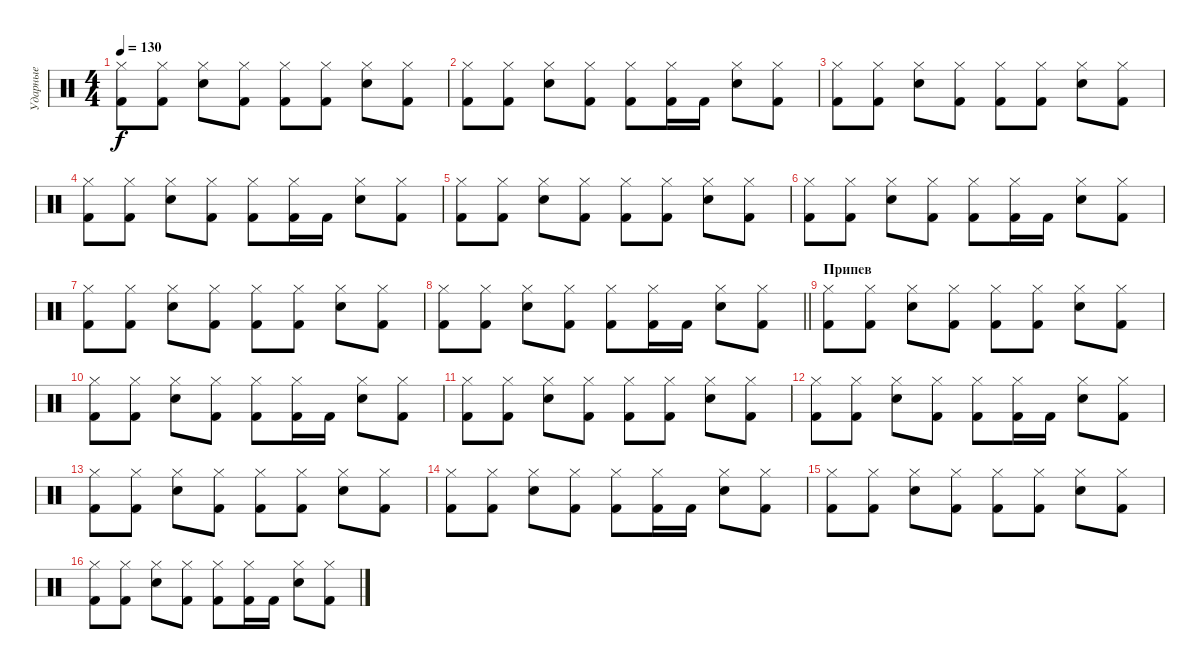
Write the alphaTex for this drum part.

\track ("Ударные" "Ударные") {instrument percussion}
\staff {score}
\articulation defaults
\ts (4 4)
\tempo 130
\clef neutral
\ks c
("Hi-Hat (closed)" "Kick (hit) 2").8{dy f} ("Hi-Hat (closed)" "Kick (hit) 2").8 ("Hi-Hat (closed)" "Snare (hit) 2").8 ("Hi-Hat (closed)" "Kick (hit) 2").8 ("Hi-Hat (closed)" "Kick (hit) 2").8 ("Hi-Hat (closed)" "Kick (hit) 2").8 ("Hi-Hat (closed)" "Snare (hit) 2").8 ("Hi-Hat (closed)" "Kick (hit) 2").8 |
("Hi-Hat (closed)" "Kick (hit) 2").8 ("Hi-Hat (closed)" "Kick (hit) 2").8 ("Hi-Hat (closed)" "Snare (hit) 2").8 ("Hi-Hat (closed)" "Kick (hit) 2").8 ("Hi-Hat (closed)" "Kick (hit) 2").8 ("Hi-Hat (closed)" "Kick (hit) 2").16 "Kick (hit) 2".16 ("Hi-Hat (closed)" "Snare (hit) 2").8 ("Hi-Hat (closed)" "Kick (hit) 2").8 |
("Hi-Hat (closed)" "Kick (hit) 2").8 ("Hi-Hat (closed)" "Kick (hit) 2").8 ("Hi-Hat (closed)" "Snare (hit) 2").8 ("Hi-Hat (closed)" "Kick (hit) 2").8 ("Hi-Hat (closed)" "Kick (hit) 2").8 ("Hi-Hat (closed)" "Kick (hit) 2").8 ("Hi-Hat (closed)" "Snare (hit) 2").8 ("Hi-Hat (closed)" "Kick (hit) 2").8 |
("Hi-Hat (closed)" "Kick (hit) 2").8 ("Hi-Hat (closed)" "Kick (hit) 2").8 ("Hi-Hat (closed)" "Snare (hit) 2").8 ("Hi-Hat (closed)" "Kick (hit) 2").8 ("Hi-Hat (closed)" "Kick (hit) 2").8 ("Hi-Hat (closed)" "Kick (hit) 2").16 "Kick (hit) 2".16 ("Hi-Hat (closed)" "Snare (hit) 2").8 ("Hi-Hat (closed)" "Kick (hit) 2").8 |
("Hi-Hat (closed)" "Kick (hit) 2").8 ("Hi-Hat (closed)" "Kick (hit) 2").8 ("Hi-Hat (closed)" "Snare (hit) 2").8 ("Hi-Hat (closed)" "Kick (hit) 2").8 ("Hi-Hat (closed)" "Kick (hit) 2").8 ("Hi-Hat (closed)" "Kick (hit) 2").8 ("Hi-Hat (closed)" "Snare (hit) 2").8 ("Hi-Hat (closed)" "Kick (hit) 2").8 |
("Hi-Hat (closed)" "Kick (hit) 2").8 ("Hi-Hat (closed)" "Kick (hit) 2").8 ("Hi-Hat (closed)" "Snare (hit) 2").8 ("Hi-Hat (closed)" "Kick (hit) 2").8 ("Hi-Hat (closed)" "Kick (hit) 2").8 ("Hi-Hat (closed)" "Kick (hit) 2").16 "Kick (hit) 2".16 ("Hi-Hat (closed)" "Snare (hit) 2").8 ("Hi-Hat (closed)" "Kick (hit) 2").8 |
("Hi-Hat (closed)" "Kick (hit) 2").8 ("Hi-Hat (closed)" "Kick (hit) 2").8 ("Hi-Hat (closed)" "Snare (hit) 2").8 ("Hi-Hat (closed)" "Kick (hit) 2").8 ("Hi-Hat (closed)" "Kick (hit) 2").8 ("Hi-Hat (closed)" "Kick (hit) 2").8 ("Hi-Hat (closed)" "Snare (hit) 2").8 ("Hi-Hat (closed)" "Kick (hit) 2").8 |
\barLineRight lightlight
("Hi-Hat (closed)" "Kick (hit) 2").8 ("Hi-Hat (closed)" "Kick (hit) 2").8 ("Hi-Hat (closed)" "Snare (hit) 2").8 ("Hi-Hat (closed)" "Kick (hit) 2").8 ("Hi-Hat (closed)" "Kick (hit) 2").8 ("Hi-Hat (closed)" "Kick (hit) 2").16 "Kick (hit) 2".16 ("Hi-Hat (closed)" "Snare (hit) 2").8 ("Hi-Hat (closed)" "Kick (hit) 2").8 |
\section ("" "Припев")
("Hi-Hat (closed)" "Kick (hit) 2").8 ("Hi-Hat (closed)" "Kick (hit) 2").8 ("Hi-Hat (closed)" "Snare (hit) 2").8 ("Hi-Hat (closed)" "Kick (hit) 2").8 ("Hi-Hat (closed)" "Kick (hit) 2").8 ("Hi-Hat (closed)" "Kick (hit) 2").8 ("Hi-Hat (closed)" "Snare (hit) 2").8 ("Hi-Hat (closed)" "Kick (hit) 2").8 |
("Hi-Hat (closed)" "Kick (hit) 2").8 ("Hi-Hat (closed)" "Kick (hit) 2").8 ("Hi-Hat (closed)" "Snare (hit) 2").8 ("Hi-Hat (closed)" "Kick (hit) 2").8 ("Hi-Hat (closed)" "Kick (hit) 2").8 ("Hi-Hat (closed)" "Kick (hit) 2").16 "Kick (hit) 2".16 ("Hi-Hat (closed)" "Snare (hit) 2").8 ("Hi-Hat (closed)" "Kick (hit) 2").8 |
("Hi-Hat (closed)" "Kick (hit) 2").8 ("Hi-Hat (closed)" "Kick (hit) 2").8 ("Hi-Hat (closed)" "Snare (hit) 2").8 ("Hi-Hat (closed)" "Kick (hit) 2").8 ("Hi-Hat (closed)" "Kick (hit) 2").8 ("Hi-Hat (closed)" "Kick (hit) 2").8 ("Hi-Hat (closed)" "Snare (hit) 2").8 ("Hi-Hat (closed)" "Kick (hit) 2").8 |
("Hi-Hat (closed)" "Kick (hit) 2").8 ("Hi-Hat (closed)" "Kick (hit) 2").8 ("Hi-Hat (closed)" "Snare (hit) 2").8 ("Hi-Hat (closed)" "Kick (hit) 2").8 ("Hi-Hat (closed)" "Kick (hit) 2").8 ("Hi-Hat (closed)" "Kick (hit) 2").16 "Kick (hit) 2".16 ("Hi-Hat (closed)" "Snare (hit) 2").8 ("Hi-Hat (closed)" "Kick (hit) 2").8 |
("Hi-Hat (closed)" "Kick (hit) 2").8 ("Hi-Hat (closed)" "Kick (hit) 2").8 ("Hi-Hat (closed)" "Snare (hit) 2").8 ("Hi-Hat (closed)" "Kick (hit) 2").8 ("Hi-Hat (closed)" "Kick (hit) 2").8 ("Hi-Hat (closed)" "Kick (hit) 2").8 ("Hi-Hat (closed)" "Snare (hit) 2").8 ("Hi-Hat (closed)" "Kick (hit) 2").8 |
("Hi-Hat (closed)" "Kick (hit) 2").8 ("Hi-Hat (closed)" "Kick (hit) 2").8 ("Hi-Hat (closed)" "Snare (hit) 2").8 ("Hi-Hat (closed)" "Kick (hit) 2").8 ("Hi-Hat (closed)" "Kick (hit) 2").8 ("Hi-Hat (closed)" "Kick (hit) 2").16 "Kick (hit) 2".16 ("Hi-Hat (closed)" "Snare (hit) 2").8 ("Hi-Hat (closed)" "Kick (hit) 2").8 |
("Hi-Hat (closed)" "Kick (hit) 2").8 ("Hi-Hat (closed)" "Kick (hit) 2").8 ("Hi-Hat (closed)" "Snare (hit) 2").8 ("Hi-Hat (closed)" "Kick (hit) 2").8 ("Hi-Hat (closed)" "Kick (hit) 2").8 ("Hi-Hat (closed)" "Kick (hit) 2").8 ("Hi-Hat (closed)" "Snare (hit) 2").8 ("Hi-Hat (closed)" "Kick (hit) 2").8 |
("Hi-Hat (closed)" "Kick (hit) 2").8 ("Hi-Hat (closed)" "Kick (hit) 2").8 ("Hi-Hat (closed)" "Snare (hit) 2").8 ("Hi-Hat (closed)" "Kick (hit) 2").8 ("Hi-Hat (closed)" "Kick (hit) 2").8 ("Hi-Hat (closed)" "Kick (hit) 2").16 "Kick (hit) 2".16 ("Hi-Hat (closed)" "Snare (hit) 2").8 ("Hi-Hat (closed)" "Kick (hit) 2").8
